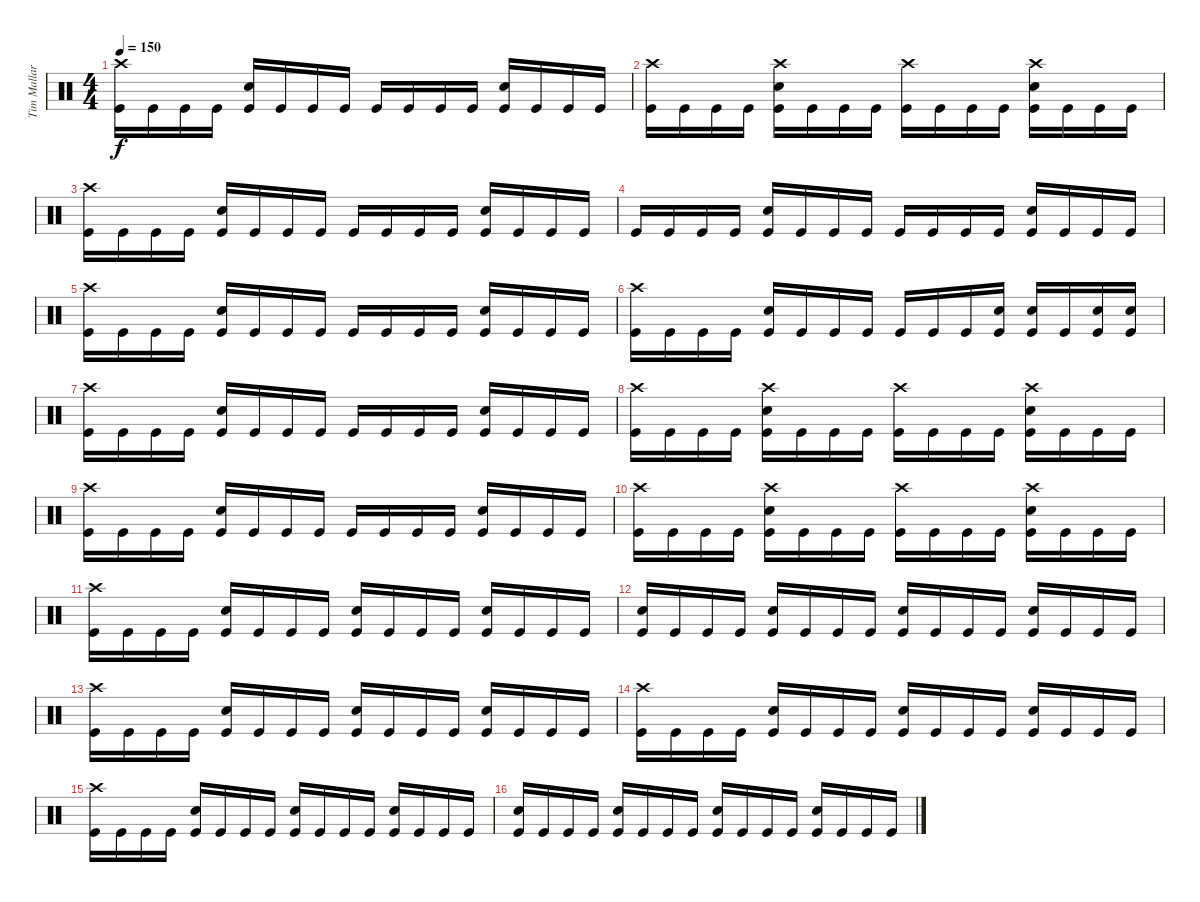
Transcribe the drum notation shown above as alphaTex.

\track ("Tim Mallare-Drums" "Tim Mallar") {instrument percussion}
\staff {score}
\articulation defaults
\ts (4 4)
\tempo 150
\clef neutral
\ks c
("Crash high (hit)" "Kick (hit)").16{dy f} "Kick (hit)".16 "Kick (hit)".16 "Kick (hit)".16 ("Electric Snare (hit)" "Kick (hit)").16 "Kick (hit)".16 "Kick (hit)".16 "Kick (hit)".16 "Kick (hit)".16 "Kick (hit)".16 "Kick (hit)".16 "Kick (hit)".16 ("Electric Snare (hit)" "Kick (hit)").16 "Kick (hit)".16 "Kick (hit)".16 "Kick (hit)".16 |
("Crash high (hit)" "Kick (hit)").16 "Kick (hit)".16 "Kick (hit)".16 "Kick (hit)".16 ("Crash high (hit)" "Electric Snare (hit)" "Kick (hit)").16 "Kick (hit)".16 "Kick (hit)".16 "Kick (hit)".16 ("Crash high (hit)" "Kick (hit)").16 "Kick (hit)".16 "Kick (hit)".16 "Kick (hit)".16 ("Crash high (hit)" "Electric Snare (hit)" "Kick (hit)").16 "Kick (hit)".16 "Kick (hit)".16 "Kick (hit)".16 |
("Crash high (hit)" "Kick (hit)").16 "Kick (hit)".16 "Kick (hit)".16 "Kick (hit)".16 ("Electric Snare (hit)" "Kick (hit)").16 "Kick (hit)".16 "Kick (hit)".16 "Kick (hit)".16 "Kick (hit)".16 "Kick (hit)".16 "Kick (hit)".16 "Kick (hit)".16 ("Electric Snare (hit)" "Kick (hit)").16 "Kick (hit)".16 "Kick (hit)".16 "Kick (hit)".16 |
"Kick (hit)".16 "Kick (hit)".16 "Kick (hit)".16 "Kick (hit)".16 ("Electric Snare (hit)" "Kick (hit)").16 "Kick (hit)".16 "Kick (hit)".16 "Kick (hit)".16 "Kick (hit)".16 "Kick (hit)".16 "Kick (hit)".16 "Kick (hit)".16 ("Electric Snare (hit)" "Kick (hit)").16 "Kick (hit)".16 "Kick (hit)".16 "Kick (hit)".16 |
("Crash high (hit)" "Kick (hit)").16 "Kick (hit)".16 "Kick (hit)".16 "Kick (hit)".16 ("Electric Snare (hit)" "Kick (hit)").16 "Kick (hit)".16 "Kick (hit)".16 "Kick (hit)".16 "Kick (hit)".16 "Kick (hit)".16 "Kick (hit)".16 "Kick (hit)".16 ("Electric Snare (hit)" "Kick (hit)").16 "Kick (hit)".16 "Kick (hit)".16 "Kick (hit)".16 |
("Crash high (hit)" "Kick (hit)").16 "Kick (hit)".16 "Kick (hit)".16 "Kick (hit)".16 ("Electric Snare (hit)" "Kick (hit)").16 "Kick (hit)".16 "Kick (hit)".16 "Kick (hit)".16 "Kick (hit)".16 "Kick (hit)".16 "Kick (hit)".16 ("Electric Snare (hit)" "Kick (hit)").16 ("Electric Snare (hit)" "Kick (hit)").16 "Kick (hit)".16 ("Electric Snare (hit)" "Kick (hit)").16 ("Electric Snare (hit)" "Kick (hit)").16 |
("Crash high (hit)" "Kick (hit)").16 "Kick (hit)".16 "Kick (hit)".16 "Kick (hit)".16 ("Electric Snare (hit)" "Kick (hit)").16 "Kick (hit)".16 "Kick (hit)".16 "Kick (hit)".16 "Kick (hit)".16 "Kick (hit)".16 "Kick (hit)".16 "Kick (hit)".16 ("Electric Snare (hit)" "Kick (hit)").16 "Kick (hit)".16 "Kick (hit)".16 "Kick (hit)".16 |
("Crash high (hit)" "Kick (hit)").16 "Kick (hit)".16 "Kick (hit)".16 "Kick (hit)".16 ("Crash high (hit)" "Electric Snare (hit)" "Kick (hit)").16 "Kick (hit)".16 "Kick (hit)".16 "Kick (hit)".16 ("Crash high (hit)" "Kick (hit)").16 "Kick (hit)".16 "Kick (hit)".16 "Kick (hit)".16 ("Crash high (hit)" "Electric Snare (hit)" "Kick (hit)").16 "Kick (hit)".16 "Kick (hit)".16 "Kick (hit)".16 |
("Crash high (hit)" "Kick (hit)").16 "Kick (hit)".16 "Kick (hit)".16 "Kick (hit)".16 ("Electric Snare (hit)" "Kick (hit)").16 "Kick (hit)".16 "Kick (hit)".16 "Kick (hit)".16 "Kick (hit)".16 "Kick (hit)".16 "Kick (hit)".16 "Kick (hit)".16 ("Electric Snare (hit)" "Kick (hit)").16 "Kick (hit)".16 "Kick (hit)".16 "Kick (hit)".16 |
("Crash high (hit)" "Kick (hit)").16 "Kick (hit)".16 "Kick (hit)".16 "Kick (hit)".16 ("Crash high (hit)" "Electric Snare (hit)" "Kick (hit)").16 "Kick (hit)".16 "Kick (hit)".16 "Kick (hit)".16 ("Crash high (hit)" "Kick (hit)").16 "Kick (hit)".16 "Kick (hit)".16 "Kick (hit)".16 ("Crash high (hit)" "Electric Snare (hit)" "Kick (hit)").16 "Kick (hit)".16 "Kick (hit)".16 "Kick (hit)".16 |
("Crash high (hit)" "Kick (hit)").16 "Kick (hit)".16 "Kick (hit)".16 "Kick (hit)".16 ("Electric Snare (hit)" "Kick (hit)").16 "Kick (hit)".16 "Kick (hit)".16 "Kick (hit)".16 ("Electric Snare (hit)" "Kick (hit)").16 "Kick (hit)".16 "Kick (hit)".16 "Kick (hit)".16 ("Electric Snare (hit)" "Kick (hit)").16 "Kick (hit)".16 "Kick (hit)".16 "Kick (hit)".16 |
("Electric Snare (hit)" "Kick (hit)").16 "Kick (hit)".16 "Kick (hit)".16 "Kick (hit)".16 ("Electric Snare (hit)" "Kick (hit)").16 "Kick (hit)".16 "Kick (hit)".16 "Kick (hit)".16 ("Electric Snare (hit)" "Kick (hit)").16 "Kick (hit)".16 "Kick (hit)".16 "Kick (hit)".16 ("Electric Snare (hit)" "Kick (hit)").16 "Kick (hit)".16 "Kick (hit)".16 "Kick (hit)".16 |
("Crash high (hit)" "Kick (hit)").16 "Kick (hit)".16 "Kick (hit)".16 "Kick (hit)".16 ("Electric Snare (hit)" "Kick (hit)").16 "Kick (hit)".16 "Kick (hit)".16 "Kick (hit)".16 ("Electric Snare (hit)" "Kick (hit)").16 "Kick (hit)".16 "Kick (hit)".16 "Kick (hit)".16 ("Electric Snare (hit)" "Kick (hit)").16 "Kick (hit)".16 "Kick (hit)".16 "Kick (hit)".16 |
("Crash high (hit)" "Kick (hit)").16 "Kick (hit)".16 "Kick (hit)".16 "Kick (hit)".16 ("Electric Snare (hit)" "Kick (hit)").16 "Kick (hit)".16 "Kick (hit)".16 "Kick (hit)".16 ("Electric Snare (hit)" "Kick (hit)").16 "Kick (hit)".16 "Kick (hit)".16 "Kick (hit)".16 ("Electric Snare (hit)" "Kick (hit)").16 "Kick (hit)".16 "Kick (hit)".16 "Kick (hit)".16 |
("Crash high (hit)" "Kick (hit)").16 "Kick (hit)".16 "Kick (hit)".16 "Kick (hit)".16 ("Electric Snare (hit)" "Kick (hit)").16 "Kick (hit)".16 "Kick (hit)".16 "Kick (hit)".16 ("Electric Snare (hit)" "Kick (hit)").16 "Kick (hit)".16 "Kick (hit)".16 "Kick (hit)".16 ("Electric Snare (hit)" "Kick (hit)").16 "Kick (hit)".16 "Kick (hit)".16 "Kick (hit)".16 |
("Electric Snare (hit)" "Kick (hit)").16 "Kick (hit)".16 "Kick (hit)".16 "Kick (hit)".16 ("Electric Snare (hit)" "Kick (hit)").16 "Kick (hit)".16 "Kick (hit)".16 "Kick (hit)".16 ("Electric Snare (hit)" "Kick (hit)").16 "Kick (hit)".16 "Kick (hit)".16 "Kick (hit)".16 ("Electric Snare (hit)" "Kick (hit)").16 "Kick (hit)".16 "Kick (hit)".16 "Kick (hit)".16
